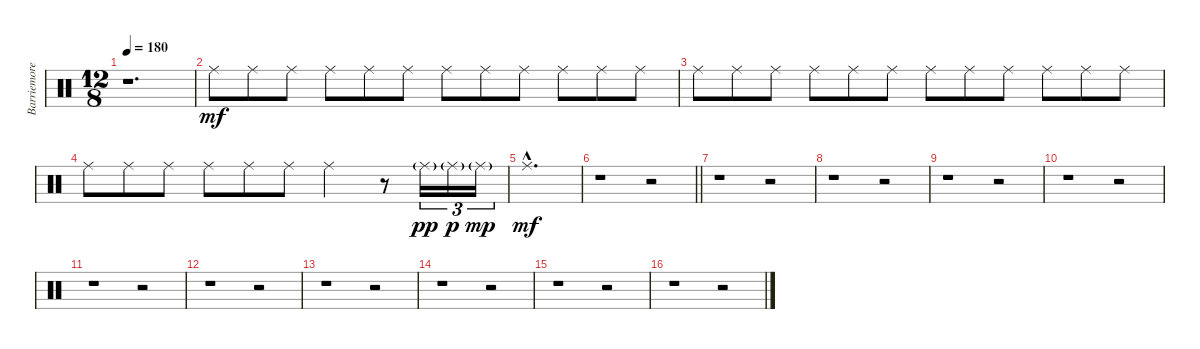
\track ("Barriemore Barlow (drums)" "Barriemore") {instrument percussion}
\staff {score}
\articulation defaults
\ts (12 8)
\tempo 180
\clef neutral
\ks c
r.1{d dy mf} |
"Ride (middle)".8 "Ride (middle)".8 "Ride (middle)".8 "Ride (middle)".8 "Ride (middle)".8 "Ride (middle)".8 "Ride (middle)".8 "Ride (middle)".8 "Ride (middle)".8 "Ride (middle)".8 "Ride (middle)".8 "Ride (middle)".8 |
"Ride (middle)".8 "Ride (middle)".8 "Ride (middle)".8 "Ride (middle)".8 "Ride (middle)".8 "Ride (middle)".8 "Ride (middle)".8 "Ride (middle)".8 "Ride (middle)".8 "Ride (middle)".8 "Ride (middle)".8 "Ride (middle)".8 |
"Ride (middle)".8 "Ride (middle)".8 "Ride (middle)".8 "Ride (middle)".8 "Ride (middle)".8 "Ride (middle)".8 "Ride (middle)".2 r.8 "Ride (middle)"{g}.16{tu (3 2) dy pp} "Ride (middle)"{g}.16{tu (3 2) dy p} "Ride (middle)"{g}.16{tu (3 2) dy mp} |
"Ride (middle)"{hac}.1{d dy mf} |
\barLineRight lightlight
r.1 r.2 |
r.1 r.2 |
r.1 r.2 |
r.1 r.2 |
r.1 r.2 |
r.1 r.2 |
r.1 r.2 |
r.1 r.2 |
r.1 r.2 |
r.1 r.2 |
r.1 r.2
